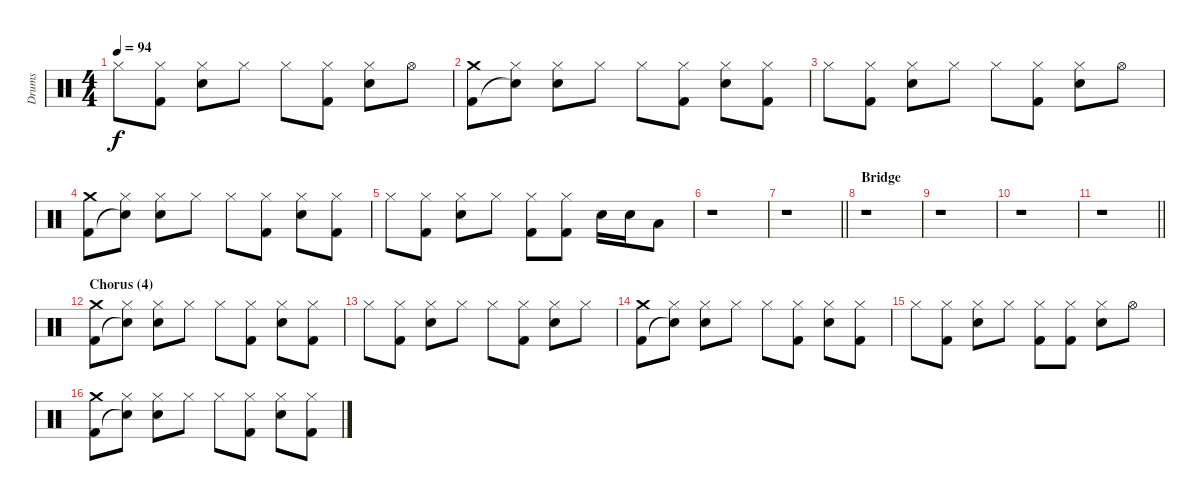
\track ("Drums" "Drums") {instrument percussion}
\staff {score}
\articulation defaults
\ts (4 4)
\tempo 94
\clef neutral
\ks aminor "Hi-Hat (closed)".8{dy f}
("Hi-Hat (closed)" "Kick (hit) 2").8 ("Hi-Hat (closed)" "Electric Snare (hit)").8 "Hi-Hat (closed)".8 "Hi-Hat (closed)".8 ("Hi-Hat (closed)" "Kick (hit) 2").8 ("Hi-Hat (closed)" "Electric Snare (hit)").8 "Hi-Hat (open)".8 |
("Crash medium (hit)" "Kick (hit) 2").8 ("Hi-Hat (closed)" "Snare (hit)"{t}).8 ("Hi-Hat (closed)" "Electric Snare (hit)").8 "Hi-Hat (closed)".8 "Hi-Hat (closed)".8 ("Hi-Hat (closed)" "Kick (hit) 2").8 ("Hi-Hat (closed)" "Electric Snare (hit)").8 ("Hi-Hat (closed)" "Kick (hit) 2").8 |
"Hi-Hat (closed)".8 ("Hi-Hat (closed)" "Kick (hit) 2").8 ("Hi-Hat (closed)" "Electric Snare (hit)").8 "Hi-Hat (closed)".8 "Hi-Hat (closed)".8 ("Hi-Hat (closed)" "Kick (hit) 2").8 ("Hi-Hat (closed)" "Electric Snare (hit)").8 "Hi-Hat (open)".8 |
("Crash medium (hit)" "Kick (hit) 2").8 ("Hi-Hat (closed)" "Snare (hit)"{t}).8 ("Hi-Hat (closed)" "Electric Snare (hit)").8 "Hi-Hat (closed)".8 "Hi-Hat (closed)".8 ("Hi-Hat (closed)" "Kick (hit) 2").8 ("Hi-Hat (closed)" "Electric Snare (hit)").8 ("Hi-Hat (closed)" "Kick (hit) 2").8 |
"Hi-Hat (closed)".8 ("Hi-Hat (closed)" "Kick (hit) 2").8 ("Hi-Hat (closed)" "Electric Snare (hit)").8 "Hi-Hat (closed)".8 ("Hi-Hat (closed)" "Kick (hit) 2").8 ("Hi-Hat (closed)" "Kick (hit) 2").8 "Electric Snare (hit)".16 "Electric Snare (hit)".16 "Low Tom (hit)".8 |
r.1 |
\barLineRight lightlight
r.1 |
\section ("" "Bridge")
r.1 |
r.1 |
r.1 |
\barLineRight lightlight
r.1 |
\section ("" "Chorus (4)")
("Crash medium (hit)" "Kick (hit) 2").8 ("Hi-Hat (closed)" "Snare (hit)"{t}).8 ("Hi-Hat (closed)" "Electric Snare (hit)").8 "Hi-Hat (closed)".8 "Hi-Hat (closed)".8 ("Hi-Hat (closed)" "Kick (hit) 2").8 ("Hi-Hat (closed)" "Electric Snare (hit)").8 ("Hi-Hat (closed)" "Kick (hit) 2").8 |
"Hi-Hat (closed)".8 ("Hi-Hat (closed)" "Kick (hit) 2").8 ("Hi-Hat (closed)" "Electric Snare (hit)").8 "Hi-Hat (closed)".8 "Hi-Hat (closed)".8 ("Hi-Hat (closed)" "Kick (hit) 2").8 ("Hi-Hat (closed)" "Electric Snare (hit)").8 "Hi-Hat (closed)".8 |
("Crash medium (hit)" "Kick (hit) 2").8 ("Hi-Hat (closed)" "Snare (hit)"{t}).8 ("Hi-Hat (closed)" "Electric Snare (hit)").8 "Hi-Hat (closed)".8 "Hi-Hat (closed)".8 ("Hi-Hat (closed)" "Kick (hit) 2").8 ("Hi-Hat (closed)" "Electric Snare (hit)").8 ("Hi-Hat (closed)" "Kick (hit) 2").8 |
"Hi-Hat (closed)".8 ("Hi-Hat (closed)" "Kick (hit) 2").8 ("Hi-Hat (closed)" "Electric Snare (hit)").8 "Hi-Hat (closed)".8 ("Hi-Hat (closed)" "Kick (hit) 2").8 ("Hi-Hat (closed)" "Kick (hit) 2").8 ("Hi-Hat (closed)" "Electric Snare (hit)").8 "Hi-Hat (open)".8 |
("Crash medium (hit)" "Kick (hit) 2").8 ("Hi-Hat (closed)" "Snare (hit)"{t}).8 ("Hi-Hat (closed)" "Electric Snare (hit)").8 "Hi-Hat (closed)".8 "Hi-Hat (closed)".8 ("Hi-Hat (closed)" "Kick (hit) 2").8 ("Hi-Hat (closed)" "Electric Snare (hit)").8 ("Hi-Hat (closed)" "Kick (hit) 2").8
